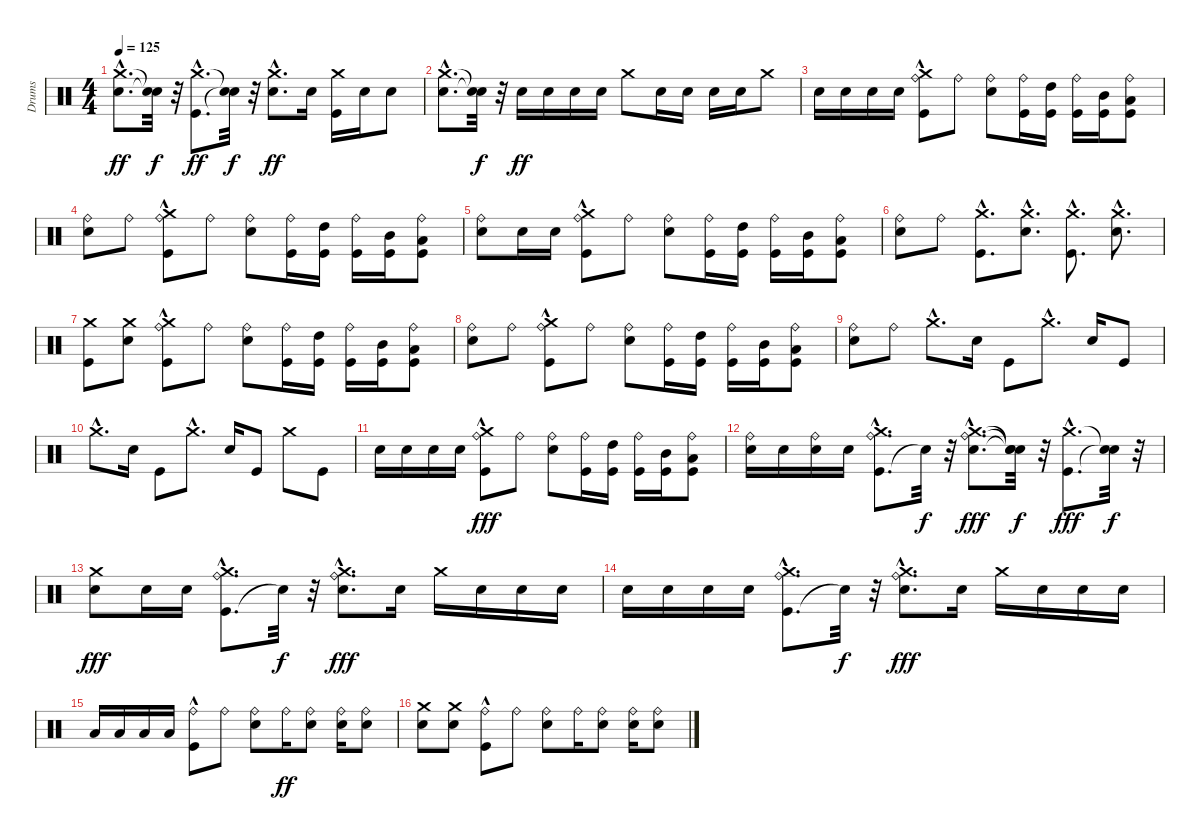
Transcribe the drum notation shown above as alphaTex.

\track ("Drums" "Drums") {instrument percussion}
\staff {score}
\articulation defaults
\ts (4 4)
\tempo 125
\clef neutral
\ks c
("Electric Snare (hit)"{hac} "Crash medium (hit)"{hac}).8{d dy ff} ("Snare (hit)"{t} "Snare (hit)"{t}).32{dy f} r.32 ("Kick (hit)"{hac} "Crash medium (hit)"{hac}).8{d dy ff} ("Snare (hit)"{t} "Snare (hit)"{t}).32{dy f} r.32 ("Electric Snare (hit)"{hac} "Crash medium (hit)"{hac}).8{d dy ff} "Electric Snare (hit)".16 ("Kick (hit)" "Crash medium (hit)").16 "Electric Snare (hit)".16 "Electric Snare (hit)".8 |
("Electric Snare (hit)"{hac} "Crash medium (hit)"{hac}).8{d} ("Snare (hit)"{t} "Snare (hit)"{t}).32{dy f} r.32 "Electric Snare (hit)".16{dy ff} "Electric Snare (hit)".16 "Electric Snare (hit)".16 "Electric Snare (hit)".16 "Crash medium (hit)".8 "Electric Snare (hit)".16 "Electric Snare (hit)".16 "Electric Snare (hit)".16 "Electric Snare (hit)".16 "Crash medium (hit)".8 |
"Electric Snare (hit)".16 "Electric Snare (hit)".16 "Electric Snare (hit)".16 "Electric Snare (hit)".16 ("Kick (hit)" "Ride (bell)" "Crash medium (hit)"{hac}).8 "Ride (bell)".8 ("Electric Snare (hit)" "Ride (bell)").8 ("Kick (hit)" "Ride (bell)").16 ("Kick (hit)" "High Tom (hit)").16 ("Kick (hit)" "Ride (bell)").16 ("Kick (hit)" "Mid Tom (hit)").16 ("Kick (hit)" "Low Tom (hit)" "Ride (bell)").8 |
("Electric Snare (hit)" "Ride (bell)").8 "Ride (bell)".8 ("Kick (hit)" "Ride (bell)" "Crash medium (hit)"{hac}).8 "Ride (bell)".8 ("Electric Snare (hit)" "Ride (bell)").8 ("Kick (hit)" "Ride (bell)").16 ("Kick (hit)" "High Tom (hit)").16 ("Kick (hit)" "Ride (bell)").16 ("Kick (hit)" "Mid Tom (hit)").16 ("Kick (hit)" "Low Tom (hit)" "Ride (bell)").8 |
("Electric Snare (hit)" "Ride (bell)").8 "Electric Snare (hit)".16 "Electric Snare (hit)".16 ("Kick (hit)" "Ride (bell)" "Crash medium (hit)"{hac}).8 "Ride (bell)".8 ("Electric Snare (hit)" "Ride (bell)").8 ("Kick (hit)" "Ride (bell)").16 ("Kick (hit)" "High Tom (hit)").16 ("Kick (hit)" "Ride (bell)").16 ("Kick (hit)" "Mid Tom (hit)").16 ("Kick (hit)" "Low Tom (hit)" "Ride (bell)").8 |
("Electric Snare (hit)" "Ride (bell)").8 "Ride (bell)".8 ("Kick (hit)"{hac} "Crash medium (hit)"{hac}).8{d} ("Electric Snare (hit)"{hac} "Crash medium (hit)"{hac}).8{d} ("Kick (hit)"{hac} "Crash medium (hit)"{hac}).8{d} ("Electric Snare (hit)"{hac} "Crash medium (hit)"{hac}).8{d} |
("Kick (hit)" "Crash medium (hit)").8 ("Electric Snare (hit)" "Crash medium (hit)").8 ("Kick (hit)" "Ride (bell)" "Crash medium (hit)"{hac}).8 "Ride (bell)".8 ("Electric Snare (hit)" "Ride (bell)").8 ("Kick (hit)" "Ride (bell)").16 ("Kick (hit)" "High Tom (hit)").16 ("Kick (hit)" "Ride (bell)").16 ("Kick (hit)" "Mid Tom (hit)").16 ("Kick (hit)" "Low Tom (hit)" "Ride (bell)").8 |
("Electric Snare (hit)" "Ride (bell)").8 "Ride (bell)".8 ("Kick (hit)" "Ride (bell)" "Crash medium (hit)"{hac}).8 "Ride (bell)".8 ("Electric Snare (hit)" "Ride (bell)").8 ("Kick (hit)" "Ride (bell)").16 ("Kick (hit)" "High Tom (hit)").16 ("Kick (hit)" "Ride (bell)").16 ("Kick (hit)" "Mid Tom (hit)").16 ("Kick (hit)" "Low Tom (hit)" "Ride (bell)").8 |
("Electric Snare (hit)" "Ride (bell)").8 "Ride (bell)".8 "Crash medium (hit)"{hac}.8{d} "Electric Snare (hit)".16 "Kick (hit)".8 "Crash medium (hit)"{hac}.8{d} "Electric Snare (hit)".16 "Kick (hit)".8 |
"Crash medium (hit)"{hac}.8{d} "Electric Snare (hit)".16 "Kick (hit)".8 "Crash medium (hit)"{hac}.8{d} "Electric Snare (hit)".16 "Kick (hit)".8 "Crash medium (hit)".8 "Kick (hit)".8 |
"Electric Snare (hit)".16 "Electric Snare (hit)".16 "Electric Snare (hit)".16 "Electric Snare (hit)".16 ("Kick (hit)" "Ride (bell)" "Crash medium (hit)"{hac}).8{dy fff} "Ride (bell)".8 ("Electric Snare (hit)" "Ride (bell)").8 ("Kick (hit)" "Ride (bell)").16 ("Kick (hit)" "High Tom (hit)").16 ("Kick (hit)" "Ride (bell)").16 ("Kick (hit)" "Mid Tom (hit)").16 ("Kick (hit)" "Low Tom (hit)" "Ride (bell)").8 |
("Electric Snare (hit)" "Ride (bell)").16 "Electric Snare (hit)".16 ("Electric Snare (hit)" "Ride (bell)").16 "Electric Snare (hit)".16 ("Kick (hit)" "Ride (bell)" "Crash medium (hit)"{hac}).8{d} "Snare (hit)"{t}.32{dy f} r.32 ("Electric Snare (hit)"{hac} "Ride (bell)"{hac} "Crash medium (hit)"{hac}).8{d dy fff} ("Snare (hit)"{t} "Snare (hit)"{t} "Snare (hit)"{t}).32{dy f} r.32 ("Kick (hit)"{hac} "Crash medium (hit)"{hac}).8{d dy fff} ("Snare (hit)"{t} "Snare (hit)"{t}).32{dy f} r.32 |
("Electric Snare (hit)" "Crash medium (hit)").8{dy fff} "Electric Snare (hit)".16 "Electric Snare (hit)".16 ("Kick (hit)" "Ride (bell)" "Crash medium (hit)"{hac}).8{d} "Snare (hit)"{t}.32{dy f} r.32 ("Electric Snare (hit)"{hac} "Ride (bell)"{hac} "Crash medium (hit)"{hac}).8{d dy fff} "Electric Snare (hit)".16 "Crash medium (hit)".16 "Electric Snare (hit)".16 "Electric Snare (hit)".16 "Electric Snare (hit)".16 |
"Electric Snare (hit)".16 "Electric Snare (hit)".16 "Electric Snare (hit)".16 "Electric Snare (hit)".16 ("Kick (hit)" "Ride (bell)" "Crash medium (hit)"{hac}).8{d} "Snare (hit)"{t}.32{dy f} r.32 ("Electric Snare (hit)"{hac} "Ride (bell)"{hac} "Crash medium (hit)"{hac}).8{d dy fff} "Electric Snare (hit)".16 "Crash medium (hit)".16 "Electric Snare (hit)".16 "Electric Snare (hit)".16 "Electric Snare (hit)".16 |
"Low Floor Tom (hit)".16 "Low Floor Tom (hit)".16 "Low Floor Tom (hit)".16 "Low Floor Tom (hit)".16 ("Kick (hit)"{hac} "Ride (bell)").8 "Ride (bell)".8 ("Electric Snare (hit)" "Ride (bell)").8 "Ride (bell)".16{dy ff} ("Electric Snare (hit)" "Ride (bell)").8 ("Electric Snare (hit)" "Ride (bell)").16 ("Electric Snare (hit)" "Ride (bell)").8 |
("Electric Snare (hit)" "Crash medium (hit)").8 ("Electric Snare (hit)" "Crash medium (hit)").8 ("Kick (hit)"{hac} "Ride (bell)").8 "Ride (bell)".8 ("Electric Snare (hit)" "Ride (bell)").8 "Ride (bell)".16 ("Electric Snare (hit)" "Ride (bell)").8 ("Electric Snare (hit)" "Ride (bell)").16 ("Electric Snare (hit)" "Ride (bell)").8
